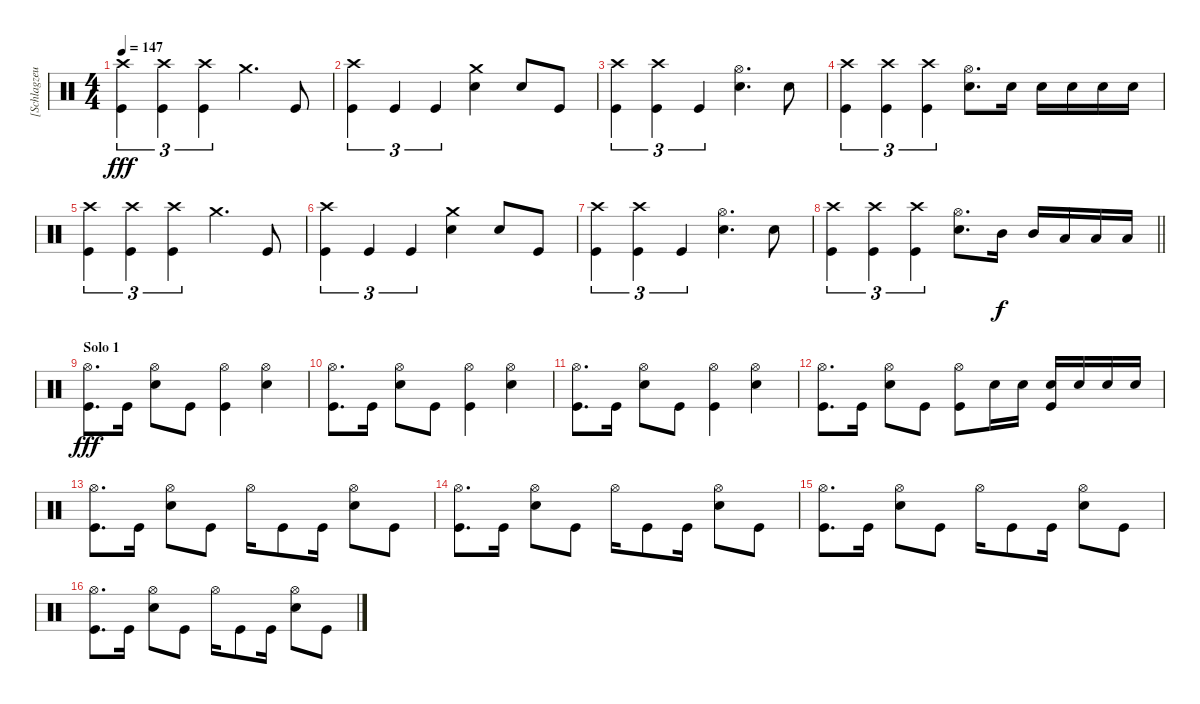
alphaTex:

\track ("[Schlagzeug]" "[Schlagzeu") {instrument percussion}
\staff {score}
\articulation defaults
\ts (4 4)
\tempo 147
\clef neutral
\ks c
("Crash high (hit)" "Kick (hit)").4{tu (3 2) dy fff} ("Crash high (hit)" "Kick (hit)").4{tu (3 2)} ("Crash high (hit)" "Kick (hit)").4{tu (3 2)} "Crash medium (hit)".4{d} "Kick (hit)".8 |
("Crash high (hit)" "Kick (hit)").4{tu (3 2)} "Kick (hit)".4{tu (3 2)} "Kick (hit)".4{tu (3 2)} ("Crash medium (hit)" "Electric Snare (hit)").4 "Electric Snare (hit)".8 "Kick (hit)".8 |
("Crash high (hit)" "Kick (hit)").4{tu (3 2)} ("Crash high (hit)" "Kick (hit)").4{tu (3 2)} "Kick (hit)".4{tu (3 2)} ("Hi-Hat (open)" "Electric Snare (hit)").4{d} "Electric Snare (hit)".8 |
("Crash high (hit)" "Kick (hit)").4{tu (3 2)} ("Crash high (hit)" "Kick (hit)").4{tu (3 2)} ("Crash high (hit)" "Kick (hit)").4{tu (3 2)} ("Hi-Hat (open)" "Electric Snare (hit)").8{d} "Electric Snare (hit)".16 "Electric Snare (hit)".16 "Electric Snare (hit)".16 "Electric Snare (hit)".16 "Electric Snare (hit)".16 |
("Crash high (hit)" "Kick (hit)").4{tu (3 2)} ("Crash high (hit)" "Kick (hit)").4{tu (3 2)} ("Crash high (hit)" "Kick (hit)").4{tu (3 2)} "Crash medium (hit)".4{d} "Kick (hit)".8 |
("Crash high (hit)" "Kick (hit)").4{tu (3 2)} "Kick (hit)".4{tu (3 2)} "Kick (hit)".4{tu (3 2)} ("Crash medium (hit)" "Electric Snare (hit)").4 "Electric Snare (hit)".8 "Kick (hit)".8 |
("Crash high (hit)" "Kick (hit)").4{tu (3 2)} ("Crash high (hit)" "Kick (hit)").4{tu (3 2)} "Kick (hit)".4{tu (3 2)} ("Hi-Hat (open)" "Electric Snare (hit)").4{d} "Electric Snare (hit)".8 |
\barLineRight lightlight
("Crash high (hit)" "Kick (hit)").4{tu (3 2)} ("Crash high (hit)" "Kick (hit)").4{tu (3 2)} ("Crash high (hit)" "Kick (hit)").4{tu (3 2)} ("Hi-Hat (open)" "Electric Snare (hit)").8{d} "Mid Tom (hit)".16{dy f} "Mid Tom (hit)".16 "Low Tom (hit)".16 "Low Tom (hit)".16 "Low Floor Tom (hit)".16 |
\section ("" "Solo 1")
("Hi-Hat (open)" "Kick (hit)").8{d dy fff} "Kick (hit)".16 ("Hi-Hat (open)" "Electric Snare (hit)").8 "Kick (hit)".8 ("Hi-Hat (open)" "Kick (hit)").4 ("Hi-Hat (open)" "Electric Snare (hit)").4 |
("Hi-Hat (open)" "Kick (hit)").8{d} "Kick (hit)".16 ("Hi-Hat (open)" "Electric Snare (hit)").8 "Kick (hit)".8 ("Hi-Hat (open)" "Kick (hit)").4 ("Hi-Hat (open)" "Electric Snare (hit)").4 |
("Hi-Hat (open)" "Kick (hit)").8{d} "Kick (hit)".16 ("Hi-Hat (open)" "Electric Snare (hit)").8 "Kick (hit)".8 ("Hi-Hat (open)" "Kick (hit)").4 ("Hi-Hat (open)" "Electric Snare (hit)").4 |
("Hi-Hat (open)" "Kick (hit)").8{d} "Kick (hit)".16 ("Hi-Hat (open)" "Electric Snare (hit)").8 "Kick (hit)".8 ("Hi-Hat (open)" "Kick (hit)").8 "Electric Snare (hit)".16 "Electric Snare (hit)".16 ("Electric Snare (hit)" "Kick (hit)").16 "Electric Snare (hit)".16 "Electric Snare (hit)".16 "Electric Snare (hit)".16 |
("Hi-Hat (open)" "Kick (hit)").8{d} "Kick (hit)".16 ("Hi-Hat (open)" "Electric Snare (hit)").8 "Kick (hit)".8 "Hi-Hat (open)".16 "Kick (hit)".8 "Kick (hit)".16 ("Hi-Hat (open)" "Electric Snare (hit)").8 "Kick (hit)".8 |
("Hi-Hat (open)" "Kick (hit)").8{d} "Kick (hit)".16 ("Hi-Hat (open)" "Electric Snare (hit)").8 "Kick (hit)".8 "Hi-Hat (open)".16 "Kick (hit)".8 "Kick (hit)".16 ("Hi-Hat (open)" "Electric Snare (hit)").8 "Kick (hit)".8 |
("Hi-Hat (open)" "Kick (hit)").8{d} "Kick (hit)".16 ("Hi-Hat (open)" "Electric Snare (hit)").8 "Kick (hit)".8 "Hi-Hat (open)".16 "Kick (hit)".8 "Kick (hit)".16 ("Hi-Hat (open)" "Electric Snare (hit)").8 "Kick (hit)".8 |
("Hi-Hat (open)" "Kick (hit)").8{d} "Kick (hit)".16 ("Hi-Hat (open)" "Electric Snare (hit)").8 "Kick (hit)".8 "Hi-Hat (open)".16 "Kick (hit)".8 "Kick (hit)".16 ("Hi-Hat (open)" "Electric Snare (hit)").8 "Kick (hit)".8
